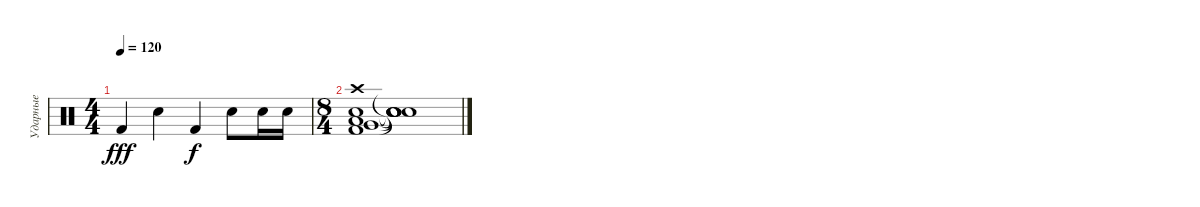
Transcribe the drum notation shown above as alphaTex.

\track ("Ударные" "Ударные") {instrument percussion}
\staff {score}
\articulation defaults
\ts (4 4)
\tempo 120
\clef neutral
\ks c "Kick (hit) 2".4{dy fff} "Electric Snare (hit)".4 "Kick (hit) 2".4{dy f} "Electric Snare (hit)".8 "Electric Snare (hit)".16 "Electric Snare (hit)".16
|
\ts (8 4)
("Crash high (hit)" "Low Tom (hit)" "Kick (hit) 2" "Very Low Tom (hit)" "Electric Snare (hit)").1 ("Snare (hit)"{t} "Snare (hit)"{t} "Snare (hit)"{t} "Snare (hit)"{t} "Snare (hit)"{t}).1
